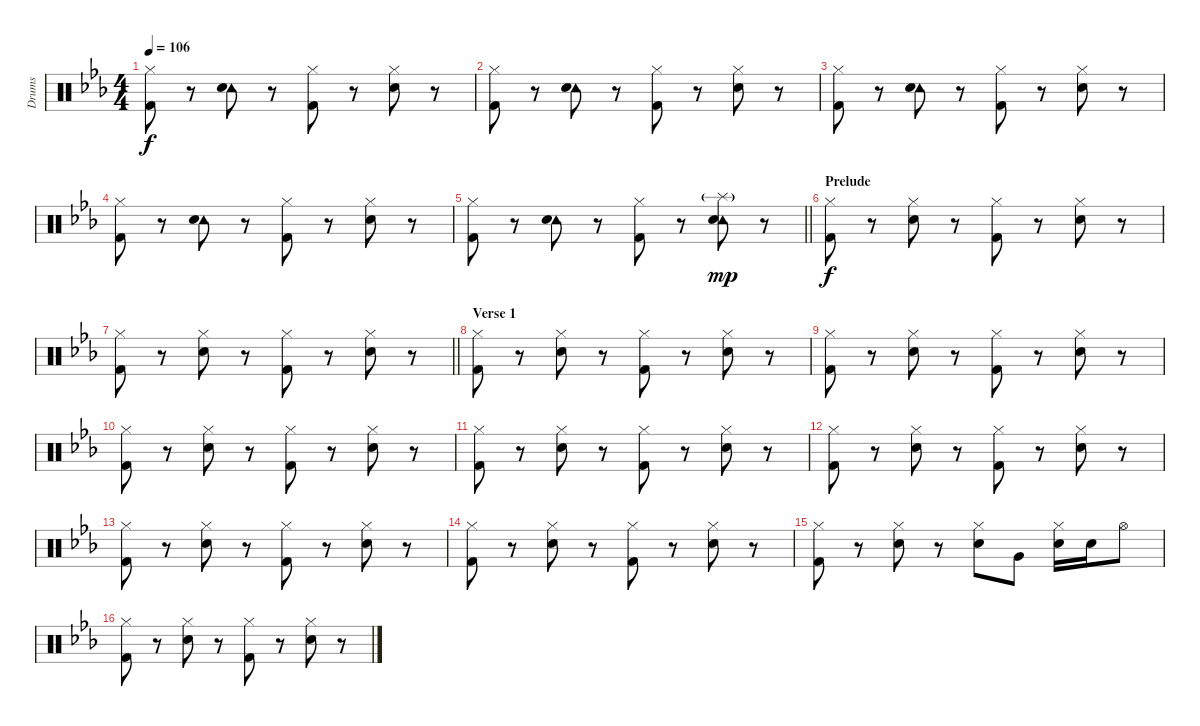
\track ("Drums" "Drums") {instrument percussion}
\staff {score}
\articulation defaults
\ts (4 4)
\tempo 106
\clef neutral
\ks cminor
("Hi-Hat (closed)" "Kick (hit) 2").8{dy f} r.8 ("Tambourine (hit)" "Snare (hit) 2").8 r.8 ("Hi-Hat (closed)" "Kick (hit) 2").8 r.8 ("Hi-Hat (closed)" "Snare (hit) 2").8 r.8 |
("Hi-Hat (closed)" "Kick (hit) 2").8 r.8 ("Tambourine (hit)" "Snare (hit) 2").8 r.8 ("Hi-Hat (closed)" "Kick (hit) 2").8 r.8 ("Hi-Hat (closed)" "Snare (hit) 2").8 r.8 |
("Hi-Hat (closed)" "Kick (hit) 2").8 r.8 ("Tambourine (hit)" "Snare (hit) 2").8 r.8 ("Hi-Hat (closed)" "Kick (hit) 2").8 r.8 ("Hi-Hat (closed)" "Snare (hit) 2").8 r.8 |
("Hi-Hat (closed)" "Kick (hit) 2").8 r.8 ("Tambourine (hit)" "Snare (hit) 2").8 r.8 ("Hi-Hat (closed)" "Kick (hit) 2").8 r.8 ("Hi-Hat (closed)" "Snare (hit) 2").8 r.8 |
\barLineRight lightlight
("Hi-Hat (closed)" "Kick (hit) 2").8 r.8 ("Tambourine (hit)" "Snare (hit) 2").8 r.8 ("Hi-Hat (closed)" "Kick (hit) 2").8 r.8 ("Splash (hit)"{g} "Tambourine (hit)" "Snare (hit) 2").8{dy mp} r.8 |
\section ("" "Prelude")
("Hi-Hat (closed)" "Kick (hit) 2").8{dy f} r.8 ("Hi-Hat (closed)" "Snare (hit) 2").8 r.8 ("Hi-Hat (closed)" "Kick (hit) 2").8 r.8 ("Hi-Hat (closed)" "Snare (hit) 2").8 r.8 |
\barLineRight lightlight
("Hi-Hat (closed)" "Kick (hit) 2").8 r.8 ("Hi-Hat (closed)" "Snare (hit) 2").8 r.8 ("Hi-Hat (closed)" "Kick (hit) 2").8 r.8 ("Hi-Hat (closed)" "Snare (hit) 2").8 r.8 |
\section ("" "Verse 1")
("Hi-Hat (closed)" "Kick (hit) 2").8 r.8 ("Hi-Hat (closed)" "Snare (hit) 2").8 r.8 ("Hi-Hat (closed)" "Kick (hit) 2").8 r.8 ("Hi-Hat (closed)" "Snare (hit) 2").8 r.8 |
("Hi-Hat (closed)" "Kick (hit) 2").8 r.8 ("Hi-Hat (closed)" "Snare (hit) 2").8 r.8 ("Hi-Hat (closed)" "Kick (hit) 2").8 r.8 ("Hi-Hat (closed)" "Snare (hit) 2").8 r.8 |
("Hi-Hat (closed)" "Kick (hit) 2").8 r.8 ("Hi-Hat (closed)" "Snare (hit) 2").8 r.8 ("Hi-Hat (closed)" "Kick (hit) 2").8 r.8 ("Hi-Hat (closed)" "Snare (hit) 2").8 r.8 |
("Hi-Hat (closed)" "Kick (hit) 2").8 r.8 ("Hi-Hat (closed)" "Snare (hit) 2").8 r.8 ("Hi-Hat (closed)" "Kick (hit) 2").8 r.8 ("Hi-Hat (closed)" "Snare (hit) 2").8 r.8 |
("Hi-Hat (closed)" "Kick (hit) 2").8 r.8 ("Hi-Hat (closed)" "Snare (hit) 2").8 r.8 ("Hi-Hat (closed)" "Kick (hit) 2").8 r.8 ("Hi-Hat (closed)" "Snare (hit) 2").8 r.8 |
("Hi-Hat (closed)" "Kick (hit) 2").8 r.8 ("Hi-Hat (closed)" "Snare (hit) 2").8 r.8 ("Hi-Hat (closed)" "Kick (hit) 2").8 r.8 ("Hi-Hat (closed)" "Snare (hit) 2").8 r.8 |
("Hi-Hat (closed)" "Kick (hit) 2").8 r.8 ("Hi-Hat (closed)" "Snare (hit) 2").8 r.8 ("Hi-Hat (closed)" "Kick (hit) 2").8 r.8 ("Hi-Hat (closed)" "Snare (hit) 2").8 r.8 |
("Hi-Hat (closed)" "Kick (hit) 2").8 r.8 ("Hi-Hat (closed)" "Snare (hit) 2").8 r.8 ("Hi-Hat (closed)" "Snare (hit) 2").8 "Very Low Tom (hit)".8 ("Hi-Hat (closed)" "Snare (hit) 2").16 "Snare (hit) 2".16 "Hi-Hat (open)".8 |
("Hi-Hat (closed)" "Kick (hit) 2").8 r.8 ("Hi-Hat (closed)" "Snare (hit) 2").8 r.8 ("Hi-Hat (closed)" "Kick (hit) 2").8 r.8 ("Hi-Hat (closed)" "Snare (hit) 2").8 r.8
